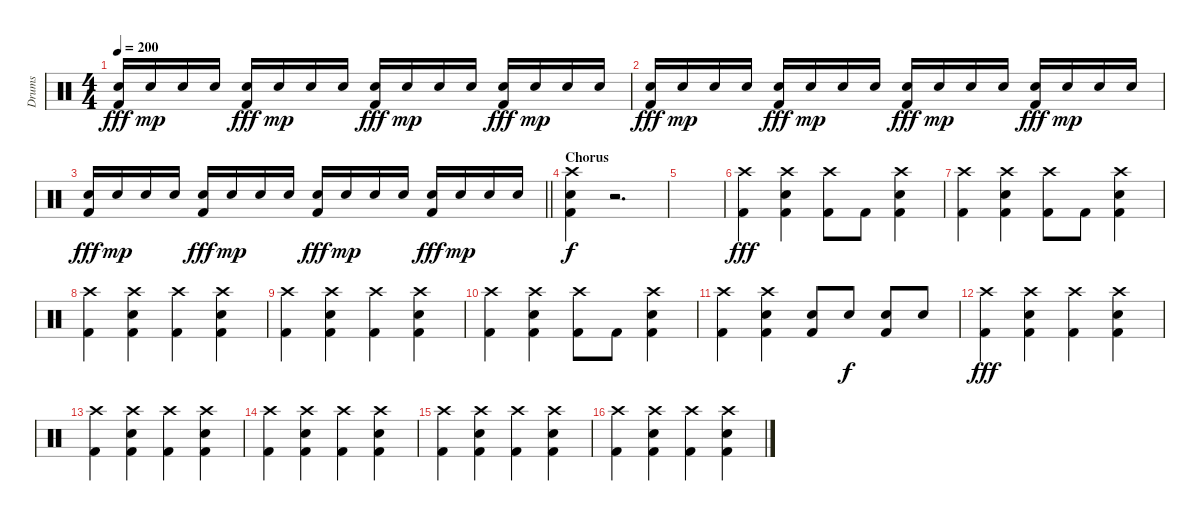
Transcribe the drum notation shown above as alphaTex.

\track ("Drums" "Drums") {instrument percussion}
\staff {score}
\articulation defaults
\ts (4 4)
\tempo 200
\clef neutral
\ks c
("Snare (hit) 2" "Kick (hit) 2").16{dy fff} "Snare (hit) 2".16{dy mp} "Snare (hit) 2".16 "Snare (hit) 2".16 ("Snare (hit) 2" "Kick (hit) 2").16{dy fff} "Snare (hit) 2".16{dy mp} "Snare (hit) 2".16 "Snare (hit) 2".16 ("Snare (hit) 2" "Kick (hit) 2").16{dy fff} "Snare (hit) 2".16{dy mp} "Snare (hit) 2".16 "Snare (hit) 2".16 ("Snare (hit) 2" "Kick (hit) 2").16{dy fff} "Snare (hit) 2".16{dy mp} "Snare (hit) 2".16 "Snare (hit) 2".16 |
("Snare (hit) 2" "Kick (hit) 2").16{dy fff} "Snare (hit) 2".16{dy mp} "Snare (hit) 2".16 "Snare (hit) 2".16 ("Snare (hit) 2" "Kick (hit) 2").16{dy fff} "Snare (hit) 2".16{dy mp} "Snare (hit) 2".16 "Snare (hit) 2".16 ("Snare (hit) 2" "Kick (hit) 2").16{dy fff} "Snare (hit) 2".16{dy mp} "Snare (hit) 2".16 "Snare (hit) 2".16 ("Snare (hit) 2" "Kick (hit) 2").16{dy fff} "Snare (hit) 2".16{dy mp} "Snare (hit) 2".16 "Snare (hit) 2".16 |
\barLineRight lightlight
("Snare (hit) 2" "Kick (hit) 2").16{dy fff} "Snare (hit) 2".16{dy mp} "Snare (hit) 2".16 "Snare (hit) 2".16 ("Snare (hit) 2" "Kick (hit) 2").16{dy fff} "Snare (hit) 2".16{dy mp} "Snare (hit) 2".16 "Snare (hit) 2".16 ("Snare (hit) 2" "Kick (hit) 2").16{dy fff} "Snare (hit) 2".16{dy mp} "Snare (hit) 2".16 "Snare (hit) 2".16 ("Snare (hit) 2" "Kick (hit) 2").16{dy fff} "Snare (hit) 2".16{dy mp} "Snare (hit) 2".16 "Snare (hit) 2".16 |
\section ("" "Chorus")
("Crash high (hit)" "Snare (hit) 2" "Kick (hit) 2").4{dy f} r.2{d} |
|
("Crash high (hit)" "Kick (hit) 2").4{dy fff} ("Crash high (hit)" "Snare (hit) 2" "Kick (hit) 2").4 ("Crash high (hit)" "Kick (hit) 2").8 "Kick (hit) 2".8 ("Crash high (hit)" "Snare (hit) 2" "Kick (hit) 2").4 |
("Crash high (hit)" "Kick (hit) 2").4 ("Crash high (hit)" "Snare (hit) 2" "Kick (hit) 2").4 ("Crash high (hit)" "Kick (hit) 2").8 "Kick (hit) 2".8 ("Crash high (hit)" "Snare (hit) 2" "Kick (hit) 2").4 |
("Crash high (hit)" "Kick (hit) 2").4 ("Crash high (hit)" "Snare (hit) 2" "Kick (hit) 2").4 ("Crash high (hit)" "Kick (hit) 2").4 ("Crash high (hit)" "Snare (hit) 2" "Kick (hit) 2").4 |
("Crash high (hit)" "Kick (hit) 2").4 ("Crash high (hit)" "Snare (hit) 2" "Kick (hit) 2").4 ("Crash high (hit)" "Kick (hit) 2").4 ("Crash high (hit)" "Snare (hit) 2" "Kick (hit) 2").4 |
("Crash high (hit)" "Kick (hit) 2").4 ("Crash high (hit)" "Snare (hit) 2" "Kick (hit) 2").4 ("Crash high (hit)" "Kick (hit) 2").8 "Kick (hit) 2".8 ("Crash high (hit)" "Snare (hit) 2" "Kick (hit) 2").4 |
("Crash high (hit)" "Kick (hit) 2").4 ("Crash high (hit)" "Snare (hit) 2" "Kick (hit) 2").4 ("Snare (hit) 2" "Kick (hit) 2").8 "Snare (hit) 2".8{dy f} ("Snare (hit) 2" "Kick (hit) 2").8 "Snare (hit) 2".8 |
("Crash high (hit)" "Kick (hit) 2").4{dy fff} ("Crash high (hit)" "Snare (hit) 2" "Kick (hit) 2").4 ("Crash high (hit)" "Kick (hit) 2").4 ("Crash high (hit)" "Snare (hit) 2" "Kick (hit) 2").4 |
("Crash high (hit)" "Kick (hit) 2").4 ("Crash high (hit)" "Snare (hit) 2" "Kick (hit) 2").4 ("Crash high (hit)" "Kick (hit) 2").4 ("Crash high (hit)" "Snare (hit) 2" "Kick (hit) 2").4 |
("Crash high (hit)" "Kick (hit) 2").4 ("Crash high (hit)" "Snare (hit) 2" "Kick (hit) 2").4 ("Crash high (hit)" "Kick (hit) 2").4 ("Crash high (hit)" "Snare (hit) 2" "Kick (hit) 2").4 |
("Crash high (hit)" "Kick (hit) 2").4 ("Crash high (hit)" "Snare (hit) 2" "Kick (hit) 2").4 ("Crash high (hit)" "Kick (hit) 2").4 ("Crash high (hit)" "Snare (hit) 2" "Kick (hit) 2").4 |
("Crash high (hit)" "Kick (hit) 2").4 ("Crash high (hit)" "Snare (hit) 2" "Kick (hit) 2").4 ("Crash high (hit)" "Kick (hit) 2").4 ("Crash high (hit)" "Snare (hit) 2" "Kick (hit) 2").4
